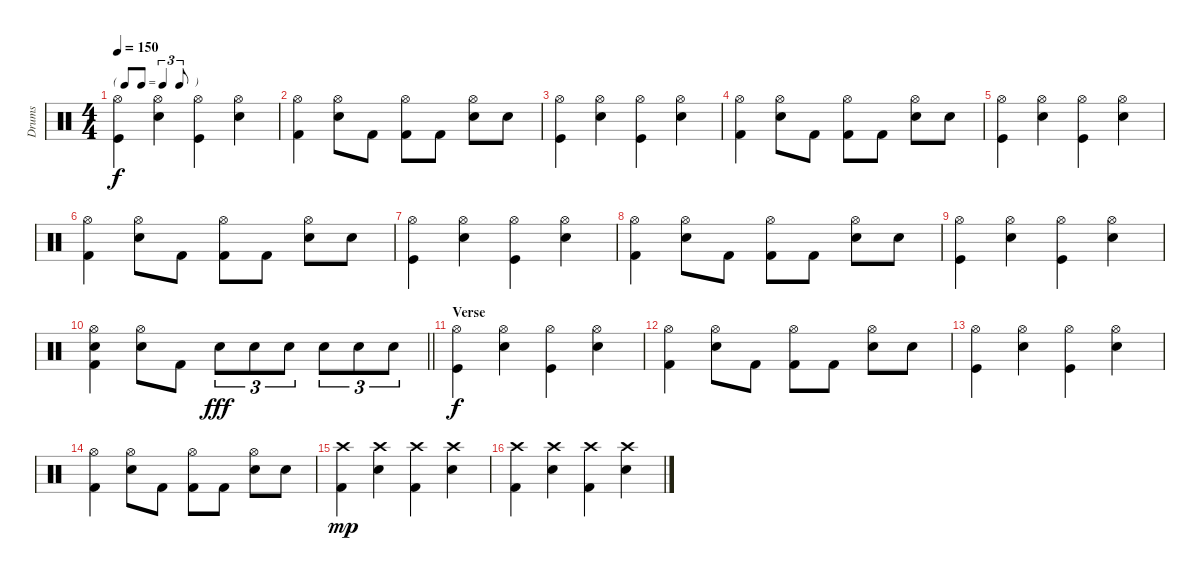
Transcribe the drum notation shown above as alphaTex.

\track ("Drums" "Drums") {instrument percussion}
\staff {score}
\articulation defaults
\ts (4 4)
\tf triplet8th
\tempo 150
\clef neutral
\ks c
("Hi-Hat (open)" "Kick (hit)").4{dy f} ("Hi-Hat (open)" "Snare (hit) 2").4 ("Hi-Hat (open)" "Kick (hit)").4 ("Hi-Hat (open)" "Snare (hit) 2").4 |
("Hi-Hat (open)" "Kick (hit) 2").4 ("Hi-Hat (open)" "Snare (hit) 2").8 "Kick (hit) 2".8 ("Hi-Hat (open)" "Kick (hit) 2").8 "Kick (hit) 2".8 ("Hi-Hat (open)" "Snare (hit) 2").8 "Snare (hit) 2".8 |
("Hi-Hat (open)" "Kick (hit)").4 ("Hi-Hat (open)" "Snare (hit) 2").4 ("Hi-Hat (open)" "Kick (hit)").4 ("Hi-Hat (open)" "Snare (hit) 2").4 |
("Hi-Hat (open)" "Kick (hit) 2").4 ("Hi-Hat (open)" "Snare (hit) 2").8 "Kick (hit) 2".8 ("Hi-Hat (open)" "Kick (hit) 2").8 "Kick (hit) 2".8 ("Hi-Hat (open)" "Snare (hit) 2").8 "Snare (hit) 2".8 |
("Hi-Hat (open)" "Kick (hit)").4 ("Hi-Hat (open)" "Snare (hit) 2").4 ("Hi-Hat (open)" "Kick (hit)").4 ("Hi-Hat (open)" "Snare (hit) 2").4 |
("Hi-Hat (open)" "Kick (hit) 2").4 ("Hi-Hat (open)" "Snare (hit) 2").8 "Kick (hit) 2".8 ("Hi-Hat (open)" "Kick (hit) 2").8 "Kick (hit) 2".8 ("Hi-Hat (open)" "Snare (hit) 2").8 "Snare (hit) 2".8 |
("Hi-Hat (open)" "Kick (hit)").4 ("Hi-Hat (open)" "Snare (hit) 2").4 ("Hi-Hat (open)" "Kick (hit)").4 ("Hi-Hat (open)" "Snare (hit) 2").4 |
("Hi-Hat (open)" "Kick (hit) 2").4 ("Hi-Hat (open)" "Snare (hit) 2").8 "Kick (hit) 2".8 ("Hi-Hat (open)" "Kick (hit) 2").8 "Kick (hit) 2".8 ("Hi-Hat (open)" "Snare (hit) 2").8 "Snare (hit) 2".8 |
("Hi-Hat (open)" "Kick (hit)").4 ("Hi-Hat (open)" "Snare (hit) 2").4 ("Hi-Hat (open)" "Kick (hit)").4 ("Hi-Hat (open)" "Snare (hit) 2").4 |
\barLineRight lightlight
("Hi-Hat (open)" "Snare (hit) 2" "Kick (hit) 2").4 ("Hi-Hat (open)" "Snare (hit) 2").8 "Kick (hit) 2".8 "Snare (hit) 2".8{tu (3 2) dy fff} "Snare (hit) 2".8{tu (3 2)} "Snare (hit) 2".8{tu (3 2)} "Snare (hit) 2".8{tu (3 2)} "Snare (hit) 2".8{tu (3 2)} "Snare (hit) 2".8{tu (3 2)} |
\section ("" "Verse")
("Hi-Hat (open)" "Kick (hit)").4{dy f} ("Hi-Hat (open)" "Snare (hit) 2").4 ("Hi-Hat (open)" "Kick (hit)").4 ("Hi-Hat (open)" "Snare (hit) 2").4 |
("Hi-Hat (open)" "Kick (hit) 2").4 ("Hi-Hat (open)" "Snare (hit) 2").8 "Kick (hit) 2".8 ("Hi-Hat (open)" "Kick (hit) 2").8 "Kick (hit) 2".8 ("Hi-Hat (open)" "Snare (hit) 2").8 "Snare (hit) 2".8 |
("Hi-Hat (open)" "Kick (hit)").4 ("Hi-Hat (open)" "Snare (hit) 2").4 ("Hi-Hat (open)" "Kick (hit)").4 ("Hi-Hat (open)" "Snare (hit) 2").4 |
("Hi-Hat (open)" "Kick (hit) 2").4 ("Hi-Hat (open)" "Snare (hit) 2").8 "Kick (hit) 2".8 ("Hi-Hat (open)" "Kick (hit) 2").8 "Kick (hit) 2".8 ("Hi-Hat (open)" "Snare (hit) 2").8 "Snare (hit) 2".8 |
("Crash high (hit)" "Kick (hit) 2").4{dy mp} ("Crash high (hit)" "Snare (hit) 2").4 ("Crash high (hit)" "Kick (hit) 2").4 ("Crash high (hit)" "Snare (hit) 2").4 |
("Crash high (hit)" "Kick (hit) 2").4 ("Crash high (hit)" "Snare (hit) 2").4 ("Crash high (hit)" "Kick (hit) 2").4 ("Crash high (hit)" "Snare (hit) 2").4
